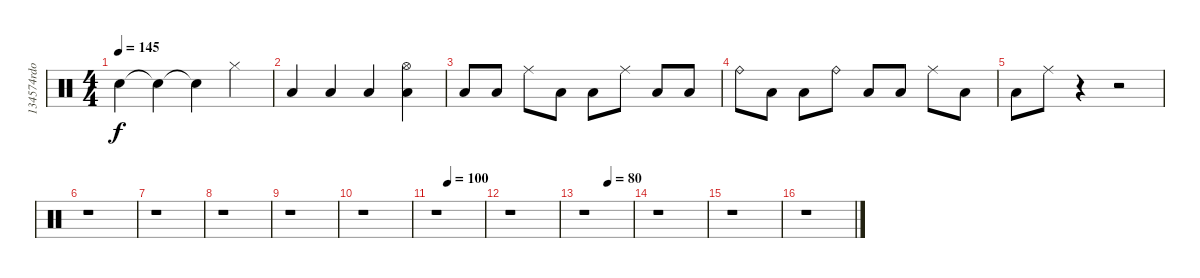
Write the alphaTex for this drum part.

\track ("134574rdo (seppewankennobi)" "134574rdo ") {instrument percussion}
\staff {score}
\articulation defaults
\ts (4 4)
\tempo 145
\clef neutral
\ks c "Snare (hit)"{t}.4{dy f} "Snare (hit)"{t}.4 "Snare (hit)"{t}.4 "Hi-Hat (closed)".4
|
"Low Floor Tom (hit)".4 "Low Floor Tom (hit)".4 "Low Floor Tom (hit)".4 ("Hi-Hat (open)" "Low Floor Tom (hit)").4 |
"Low Floor Tom (hit)".8{volume 12} "Low Floor Tom (hit)".8 "Ride (middle)".8 "Low Floor Tom (hit)".8 "Low Floor Tom (hit)".8 "Ride (middle)".8 "Low Floor Tom (hit)".8 "Low Floor Tom (hit)".8 |
"Ride (bell)".8 "Low Floor Tom (hit)".8 "Low Floor Tom (hit)".8 "Ride (bell)".8 "Low Floor Tom (hit)".8 "Low Floor Tom (hit)".8 "Ride (middle)".8 "Low Floor Tom (hit)".8 |
"Low Floor Tom (hit)".8 "Ride (middle)".8 r.4 r.2 |
r.1 |
r.1 |
r.1 |
r.1 |
r.1 |
\tempo (100 0.25)
r.1 |
r.1 |
\tempo (80 0.5)
r.1 |
r.1 |
r.1 |
r.1
